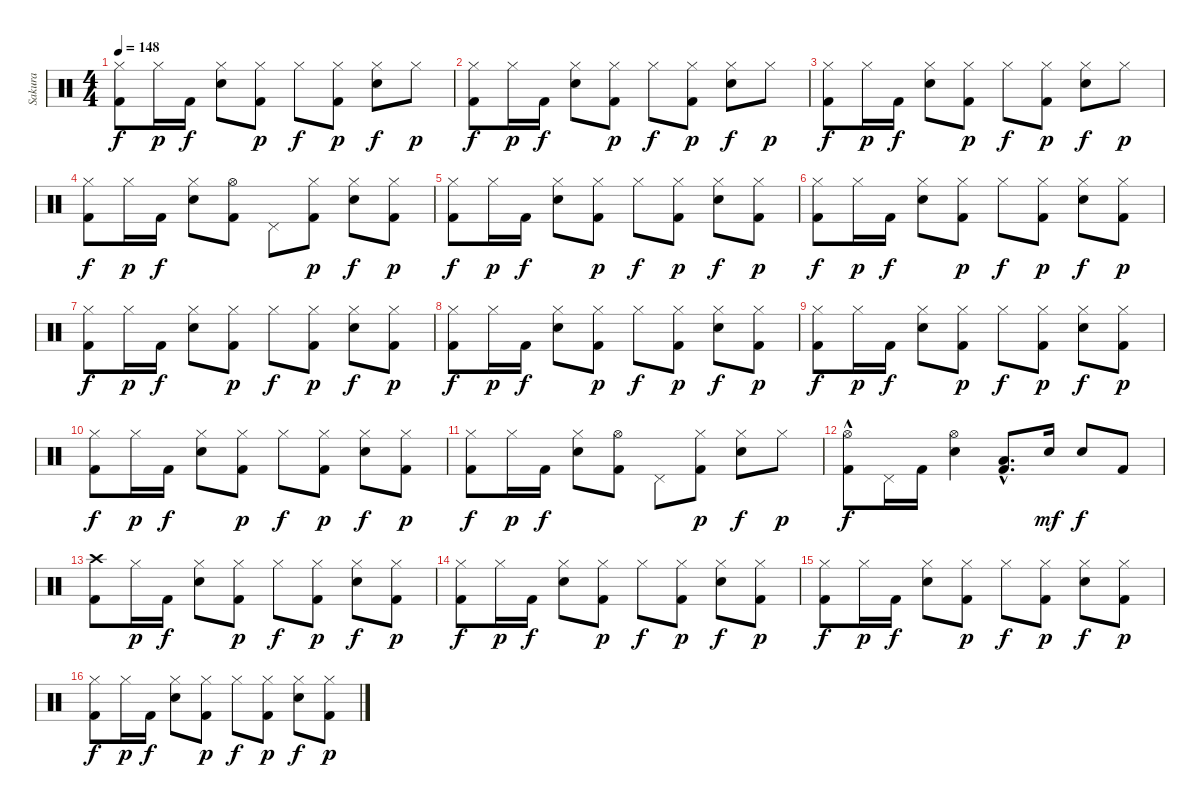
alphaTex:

\track ("Sakura" "Sakura") {instrument percussion}
\staff {score}
\articulation defaults
\ts (4 4)
\tempo 148
\clef neutral
\ks c
("Hi-Hat (closed)" "Kick (hit) 2").8{dy f} "Hi-Hat (closed)".16{dy p} "Kick (hit) 2".16{dy f} ("Hi-Hat (closed)" "Electric Snare (hit)").8 ("Hi-Hat (closed)" "Kick (hit) 2").8{dy p} "Hi-Hat (closed)".8{dy f} ("Hi-Hat (closed)" "Kick (hit) 2").8{dy p} ("Hi-Hat (closed)" "Electric Snare (hit)").8{dy f} "Hi-Hat (closed)".8{dy p} |
("Hi-Hat (closed)" "Kick (hit) 2").8{dy f} "Hi-Hat (closed)".16{dy p} "Kick (hit) 2".16{dy f} ("Hi-Hat (closed)" "Electric Snare (hit)").8 ("Hi-Hat (closed)" "Kick (hit) 2").8{dy p} "Hi-Hat (closed)".8{dy f} ("Hi-Hat (closed)" "Kick (hit) 2").8{dy p} ("Hi-Hat (closed)" "Electric Snare (hit)").8{dy f} "Hi-Hat (closed)".8{dy p} |
("Hi-Hat (closed)" "Kick (hit) 2").8{dy f} "Hi-Hat (closed)".16{dy p} "Kick (hit) 2".16{dy f} ("Hi-Hat (closed)" "Electric Snare (hit)").8 ("Hi-Hat (closed)" "Kick (hit) 2").8{dy p} "Hi-Hat (closed)".8{dy f} ("Hi-Hat (closed)" "Kick (hit) 2").8{dy p} ("Hi-Hat (closed)" "Electric Snare (hit)").8{dy f} "Hi-Hat (closed)".8{dy p} |
("Hi-Hat (closed)" "Kick (hit) 2").8{dy f} "Hi-Hat (closed)".16{dy p} "Kick (hit) 2".16{dy f} ("Hi-Hat (closed)" "Electric Snare (hit)").8 ("Hi-Hat (open)" "Kick (hit) 2").8 "Pedal Hi-Hat (hit)".8 ("Hi-Hat (closed)" "Kick (hit) 2").8{dy p} ("Hi-Hat (closed)" "Electric Snare (hit)").8{dy f} ("Hi-Hat (closed)" "Kick (hit) 2").8{dy p} |
("Hi-Hat (closed)" "Kick (hit) 2").8{dy f} "Hi-Hat (closed)".16{dy p} "Kick (hit) 2".16{dy f} ("Hi-Hat (closed)" "Electric Snare (hit)").8 ("Hi-Hat (closed)" "Kick (hit) 2").8{dy p} "Hi-Hat (closed)".8{dy f} ("Hi-Hat (closed)" "Kick (hit) 2").8{dy p} ("Hi-Hat (closed)" "Electric Snare (hit)").8{dy f} ("Hi-Hat (closed)" "Kick (hit) 2").8{dy p} |
("Hi-Hat (closed)" "Kick (hit) 2").8{dy f} "Hi-Hat (closed)".16{dy p} "Kick (hit) 2".16{dy f} ("Hi-Hat (closed)" "Electric Snare (hit)").8 ("Hi-Hat (closed)" "Kick (hit) 2").8{dy p} "Hi-Hat (closed)".8{dy f} ("Hi-Hat (closed)" "Kick (hit) 2").8{dy p} ("Hi-Hat (closed)" "Electric Snare (hit)").8{dy f} ("Hi-Hat (closed)" "Kick (hit) 2").8{dy p} |
("Hi-Hat (closed)" "Kick (hit) 2").8{dy f} "Hi-Hat (closed)".16{dy p} "Kick (hit) 2".16{dy f} ("Hi-Hat (closed)" "Electric Snare (hit)").8 ("Hi-Hat (closed)" "Kick (hit) 2").8{dy p} "Hi-Hat (closed)".8{dy f} ("Hi-Hat (closed)" "Kick (hit) 2").8{dy p} ("Hi-Hat (closed)" "Electric Snare (hit)").8{dy f} ("Hi-Hat (closed)" "Kick (hit) 2").8{dy p} |
("Hi-Hat (closed)" "Kick (hit) 2").8{dy f} "Hi-Hat (closed)".16{dy p} "Kick (hit) 2".16{dy f} ("Hi-Hat (closed)" "Electric Snare (hit)").8 ("Hi-Hat (closed)" "Kick (hit) 2").8{dy p} "Hi-Hat (closed)".8{dy f} ("Hi-Hat (closed)" "Kick (hit) 2").8{dy p} ("Hi-Hat (closed)" "Electric Snare (hit)").8{dy f} ("Hi-Hat (closed)" "Kick (hit) 2").8{dy p} |
("Hi-Hat (closed)" "Kick (hit) 2").8{dy f} "Hi-Hat (closed)".16{dy p} "Kick (hit) 2".16{dy f} ("Hi-Hat (closed)" "Electric Snare (hit)").8 ("Hi-Hat (closed)" "Kick (hit) 2").8{dy p} "Hi-Hat (closed)".8{dy f} ("Hi-Hat (closed)" "Kick (hit) 2").8{dy p} ("Hi-Hat (closed)" "Electric Snare (hit)").8{dy f} ("Hi-Hat (closed)" "Kick (hit) 2").8{dy p} |
("Hi-Hat (closed)" "Kick (hit) 2").8{dy f} "Hi-Hat (closed)".16{dy p} "Kick (hit) 2".16{dy f} ("Hi-Hat (closed)" "Electric Snare (hit)").8 ("Hi-Hat (closed)" "Kick (hit) 2").8{dy p} "Hi-Hat (closed)".8{dy f} ("Hi-Hat (closed)" "Kick (hit) 2").8{dy p} ("Hi-Hat (closed)" "Electric Snare (hit)").8{dy f} ("Hi-Hat (closed)" "Kick (hit) 2").8{dy p} |
("Hi-Hat (closed)" "Kick (hit) 2").8{dy f} "Hi-Hat (closed)".16{dy p} "Kick (hit) 2".16{dy f} ("Hi-Hat (closed)" "Electric Snare (hit)").8 ("Hi-Hat (open)" "Kick (hit) 2").8 "Pedal Hi-Hat (hit)".8 ("Hi-Hat (closed)" "Kick (hit) 2").8{dy p} ("Hi-Hat (closed)" "Electric Snare (hit)").8{dy f} "Hi-Hat (closed)".8{dy p} |
("Hi-Hat (open)"{hac} "Kick (hit) 2").8{dy f} "Pedal Hi-Hat (hit)".16 "Kick (hit) 2".16 ("Hi-Hat (open)" "Snare (hit) 2").4 ("Low Tom (hit)"{hac} "Kick (hit) 2"{hac}).8{d} "Snare (hit) 2".16{dy mf} "Snare (hit) 2".8{dy f} "Kick (hit) 2".8 |
("Crash high (hit)" "Kick (hit) 2").8 "Hi-Hat (closed)".16{dy p} "Kick (hit) 2".16{dy f} ("Hi-Hat (closed)" "Electric Snare (hit)").8 ("Hi-Hat (closed)" "Kick (hit) 2").8{dy p} "Hi-Hat (closed)".8{dy f} ("Hi-Hat (closed)" "Kick (hit) 2").8{dy p} ("Hi-Hat (closed)" "Electric Snare (hit)").8{dy f} ("Hi-Hat (closed)" "Kick (hit) 2").8{dy p} |
("Hi-Hat (closed)" "Kick (hit) 2").8{dy f} "Hi-Hat (closed)".16{dy p} "Kick (hit) 2".16{dy f} ("Hi-Hat (closed)" "Electric Snare (hit)").8 ("Hi-Hat (closed)" "Kick (hit) 2").8{dy p} "Hi-Hat (closed)".8{dy f} ("Hi-Hat (closed)" "Kick (hit) 2").8{dy p} ("Hi-Hat (closed)" "Electric Snare (hit)").8{dy f} ("Hi-Hat (closed)" "Kick (hit) 2").8{dy p} |
("Hi-Hat (closed)" "Kick (hit) 2").8{dy f} "Hi-Hat (closed)".16{dy p} "Kick (hit) 2".16{dy f} ("Hi-Hat (closed)" "Electric Snare (hit)").8 ("Hi-Hat (closed)" "Kick (hit) 2").8{dy p} "Hi-Hat (closed)".8{dy f} ("Hi-Hat (closed)" "Kick (hit) 2").8{dy p} ("Hi-Hat (closed)" "Electric Snare (hit)").8{dy f} ("Hi-Hat (closed)" "Kick (hit) 2").8{dy p} |
("Hi-Hat (closed)" "Kick (hit) 2").8{dy f} "Hi-Hat (closed)".16{dy p} "Kick (hit) 2".16{dy f} ("Hi-Hat (closed)" "Electric Snare (hit)").8 ("Hi-Hat (closed)" "Kick (hit) 2").8{dy p} "Hi-Hat (closed)".8{dy f} ("Hi-Hat (closed)" "Kick (hit) 2").8{dy p} ("Hi-Hat (closed)" "Electric Snare (hit)").8{dy f} ("Hi-Hat (closed)" "Kick (hit) 2").8{dy p}
